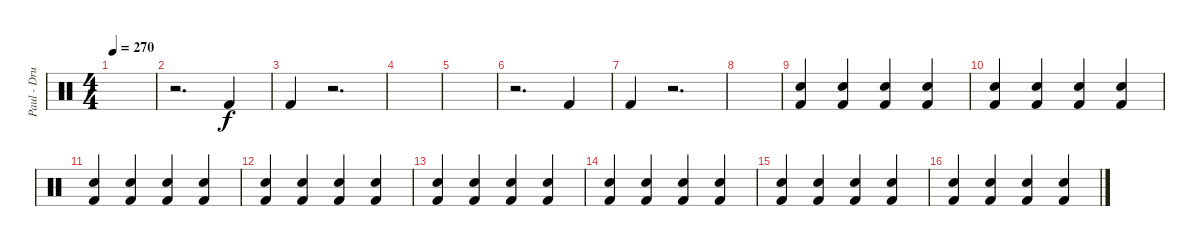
\track ("Paul - Drums" "Paul - Dru") {instrument percussion}
\staff {score}
\articulation defaults
\ts (4 4)
\tempo 270
\clef neutral
\ks c
|
r.2{d} "Kick (hit) 2".4 |
"Kick (hit) 2".4 r.2{d} |
|
|
r.2{d} "Kick (hit) 2".4 |
"Kick (hit) 2".4 r.2{d} |
|
("Electric Snare (hit)" "Kick (hit) 2").4{volume 8} ("Electric Snare (hit)" "Kick (hit) 2").4 ("Electric Snare (hit)" "Kick (hit) 2").4 ("Electric Snare (hit)" "Kick (hit) 2").4 |
("Electric Snare (hit)" "Kick (hit) 2").4 ("Electric Snare (hit)" "Kick (hit) 2").4 ("Electric Snare (hit)" "Kick (hit) 2").4 ("Electric Snare (hit)" "Kick (hit) 2").4 |
("Electric Snare (hit)" "Kick (hit) 2").4 ("Electric Snare (hit)" "Kick (hit) 2").4 ("Electric Snare (hit)" "Kick (hit) 2").4 ("Electric Snare (hit)" "Kick (hit) 2").4 |
("Electric Snare (hit)" "Kick (hit) 2").4 ("Electric Snare (hit)" "Kick (hit) 2").4 ("Electric Snare (hit)" "Kick (hit) 2").4 ("Electric Snare (hit)" "Kick (hit) 2").4 |
("Electric Snare (hit)" "Kick (hit) 2").4{volume 12} ("Electric Snare (hit)" "Kick (hit) 2").4 ("Electric Snare (hit)" "Kick (hit) 2").4 ("Electric Snare (hit)" "Kick (hit) 2").4 |
("Electric Snare (hit)" "Kick (hit) 2").4 ("Electric Snare (hit)" "Kick (hit) 2").4 ("Electric Snare (hit)" "Kick (hit) 2").4 ("Electric Snare (hit)" "Kick (hit) 2").4 |
("Electric Snare (hit)" "Kick (hit) 2").4 ("Electric Snare (hit)" "Kick (hit) 2").4 ("Electric Snare (hit)" "Kick (hit) 2").4 ("Electric Snare (hit)" "Kick (hit) 2").4 |
("Electric Snare (hit)" "Kick (hit) 2").4 ("Electric Snare (hit)" "Kick (hit) 2").4 ("Electric Snare (hit)" "Kick (hit) 2").4 ("Electric Snare (hit)" "Kick (hit) 2").4
